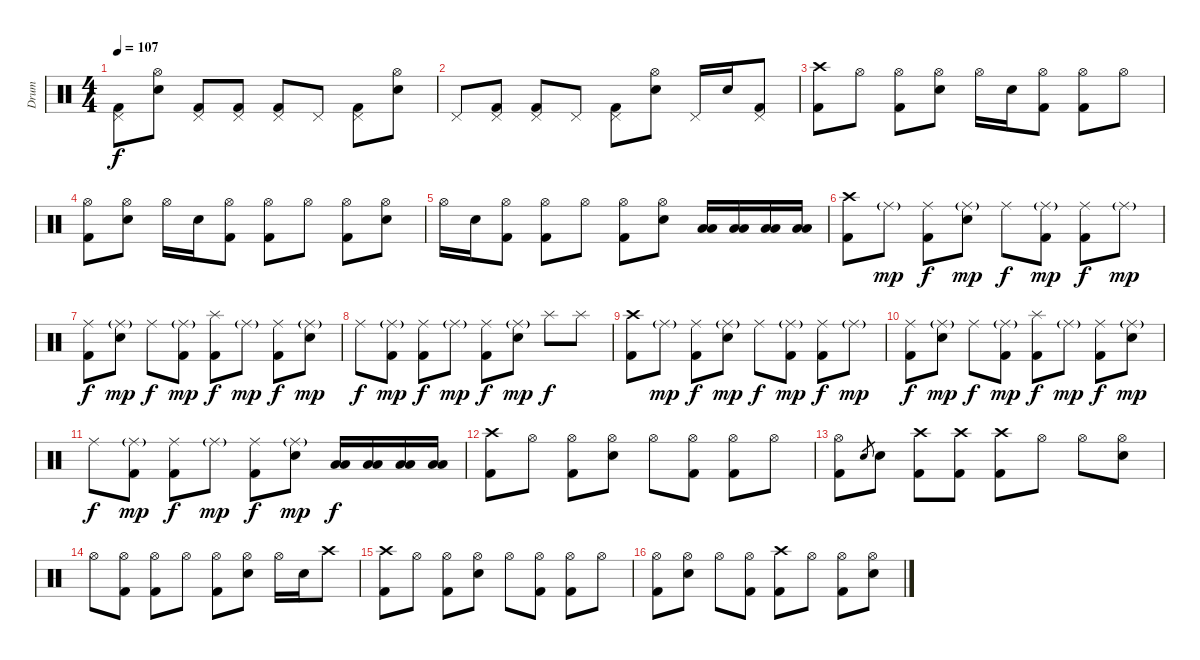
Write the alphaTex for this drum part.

\track ("Drum" "Drum") {instrument percussion}
\staff {score}
\articulation defaults
\ts (4 4)
\tempo 107
\clef neutral
\ks c
("Pedal Hi-Hat (hit)" "Kick (hit) 2").8{dy f} ("Hi-Hat (open)" "Electric Snare (hit)").8 ("Pedal Hi-Hat (hit)" "Kick (hit) 2").8 ("Pedal Hi-Hat (hit)" "Kick (hit) 2").8 ("Pedal Hi-Hat (hit)" "Kick (hit) 2").8 "Pedal Hi-Hat (hit)".8 ("Pedal Hi-Hat (hit)" "Kick (hit) 2").8 ("Hi-Hat (open)" "Electric Snare (hit)").8 |
"Pedal Hi-Hat (hit)".8 ("Pedal Hi-Hat (hit)" "Kick (hit) 2").8 ("Pedal Hi-Hat (hit)" "Kick (hit) 2").8 "Pedal Hi-Hat (hit)".8 ("Pedal Hi-Hat (hit)" "Kick (hit) 2").8 ("Hi-Hat (open)" "Electric Snare (hit)").8 "Pedal Hi-Hat (hit)".16 "Electric Snare (hit)".16 ("Pedal Hi-Hat (hit)" "Kick (hit) 2").8 |
("Crash high (hit)" "Kick (hit) 2").8 "Hi-Hat (open)".8 ("Hi-Hat (open)" "Kick (hit) 2").8 ("Hi-Hat (open)" "Electric Snare (hit)").8 "Hi-Hat (open)".16 "Electric Snare (hit)".16 ("Hi-Hat (open)" "Kick (hit) 2").8 ("Hi-Hat (open)" "Kick (hit) 2").8 "Hi-Hat (open)".8 |
("Hi-Hat (open)" "Kick (hit) 2").8 ("Hi-Hat (open)" "Electric Snare (hit)").8 "Hi-Hat (open)".16 "Electric Snare (hit)".16 ("Hi-Hat (open)" "Kick (hit) 2").8 ("Hi-Hat (open)" "Kick (hit) 2").8 "Hi-Hat (open)".8 ("Hi-Hat (open)" "Kick (hit) 2").8 ("Hi-Hat (open)" "Electric Snare (hit)").8 |
"Hi-Hat (open)".16 "Electric Snare (hit)".16 ("Hi-Hat (open)" "Kick (hit) 2").8 ("Hi-Hat (open)" "Kick (hit) 2").8 "Hi-Hat (open)".8 ("Hi-Hat (open)" "Kick (hit) 2").8 ("Hi-Hat (open)" "Electric Snare (hit)").8 ("Low Tom (hit)" "Low Floor Tom (hit)").16 ("Low Tom (hit)" "Low Floor Tom (hit)").16 ("Low Tom (hit)" "Low Floor Tom (hit)").16 ("Low Tom (hit)" "Low Floor Tom (hit)").16 |
("Crash high (hit)" "Kick (hit) 2").8 "Ride (middle)"{g}.8{dy mp} ("Ride (middle)" "Kick (hit) 2").8{dy f} ("Ride (middle)"{g} "Electric Snare (hit)").8{dy mp} "Ride (middle)".8{dy f} ("Ride (middle)"{g} "Kick (hit) 2").8{dy mp} ("Ride (middle)" "Kick (hit) 2").8{dy f} "Ride (middle)"{g}.8{dy mp} |
("Ride (middle)" "Kick (hit) 2").8{dy f} ("Ride (middle)"{g} "Electric Snare (hit)").8{dy mp} "Ride (middle)".8{dy f} ("Ride (middle)"{g} "Kick (hit) 2").8{dy mp} ("Splash (hit)" "Kick (hit) 2").8{dy f} "Ride (middle)"{g}.8{dy mp} ("Ride (middle)" "Kick (hit) 2").8{dy f} ("Ride (middle)"{g} "Electric Snare (hit)").8{dy mp} |
"Ride (middle)".8{dy f} ("Ride (middle)"{g} "Kick (hit) 2").8{dy mp} ("Ride (middle)" "Kick (hit) 2").8{dy f} "Ride (middle)"{g}.8{dy mp} ("Ride (middle)" "Kick (hit) 2").8{dy f} ("Ride (middle)"{g} "Electric Snare (hit)").8{dy mp} "Splash (hit)".8{dy f} "Splash (hit)".8 |
("Crash high (hit)" "Kick (hit) 2").8 "Ride (middle)"{g}.8{dy mp} ("Ride (middle)" "Kick (hit) 2").8{dy f} ("Ride (middle)"{g} "Electric Snare (hit)").8{dy mp} "Ride (middle)".8{dy f} ("Ride (middle)"{g} "Kick (hit) 2").8{dy mp} ("Ride (middle)" "Kick (hit) 2").8{dy f} "Ride (middle)"{g}.8{dy mp} |
("Ride (middle)" "Kick (hit) 2").8{dy f} ("Ride (middle)"{g} "Electric Snare (hit)").8{dy mp} "Ride (middle)".8{dy f} ("Ride (middle)"{g} "Kick (hit) 2").8{dy mp} ("Splash (hit)" "Kick (hit) 2").8{dy f} "Ride (middle)"{g}.8{dy mp} ("Ride (middle)" "Kick (hit) 2").8{dy f} ("Ride (middle)"{g} "Electric Snare (hit)").8{dy mp} |
"Ride (middle)".8{dy f} ("Ride (middle)"{g} "Kick (hit) 2").8{dy mp} ("Ride (middle)" "Kick (hit) 2").8{dy f} "Ride (middle)"{g}.8{dy mp} ("Ride (middle)" "Kick (hit) 2").8{dy f} ("Ride (middle)"{g} "Electric Snare (hit)").8{dy mp} ("Low Tom (hit)" "Low Floor Tom (hit)").16{dy f} ("Low Tom (hit)" "Low Floor Tom (hit)").16 ("Low Tom (hit)" "Low Floor Tom (hit)").16 ("Low Tom (hit)" "Low Floor Tom (hit)").16 |
("Crash high (hit)" "Kick (hit) 2").8 "Hi-Hat (open)".8 ("Hi-Hat (open)" "Kick (hit) 2").8 ("Hi-Hat (open)" "Electric Snare (hit)").8 "Hi-Hat (open)".8 ("Hi-Hat (open)" "Kick (hit) 2").8 ("Hi-Hat (open)" "Kick (hit) 2").8 "Hi-Hat (open)".8 |
("Hi-Hat (open)" "Kick (hit) 2").8 "Electric Snare (hit)".8{gr} "Electric Snare (hit)".8 ("Crash high (hit)" "Kick (hit) 2").8 ("Crash high (hit)" "Kick (hit) 2").8 ("Crash high (hit)" "Kick (hit) 2").8 "Hi-Hat (open)".8 "Hi-Hat (open)".8 ("Hi-Hat (open)" "Electric Snare (hit)").8 |
"Hi-Hat (open)".8 ("Hi-Hat (open)" "Kick (hit) 2").8 ("Hi-Hat (open)" "Kick (hit) 2").8 "Hi-Hat (open)".8 ("Hi-Hat (open)" "Kick (hit) 2").8 ("Hi-Hat (open)" "Electric Snare (hit)").8 "Hi-Hat (open)".16 "Electric Snare (hit)".16 "Crash high (hit)".8 |
("Crash high (hit)" "Kick (hit) 2").8 "Hi-Hat (open)".8 ("Hi-Hat (open)" "Kick (hit) 2").8 ("Hi-Hat (open)" "Electric Snare (hit)").8 "Hi-Hat (open)".8 ("Hi-Hat (open)" "Kick (hit) 2").8 ("Hi-Hat (open)" "Kick (hit) 2").8 "Hi-Hat (open)".8 |
("Hi-Hat (open)" "Kick (hit) 2").8 ("Hi-Hat (open)" "Electric Snare (hit)").8 "Hi-Hat (open)".8 ("Hi-Hat (open)" "Kick (hit) 2").8 ("Crash high (hit)" "Kick (hit) 2").8 "Hi-Hat (open)".8 ("Hi-Hat (open)" "Kick (hit) 2").8 ("Hi-Hat (open)" "Electric Snare (hit)").8
